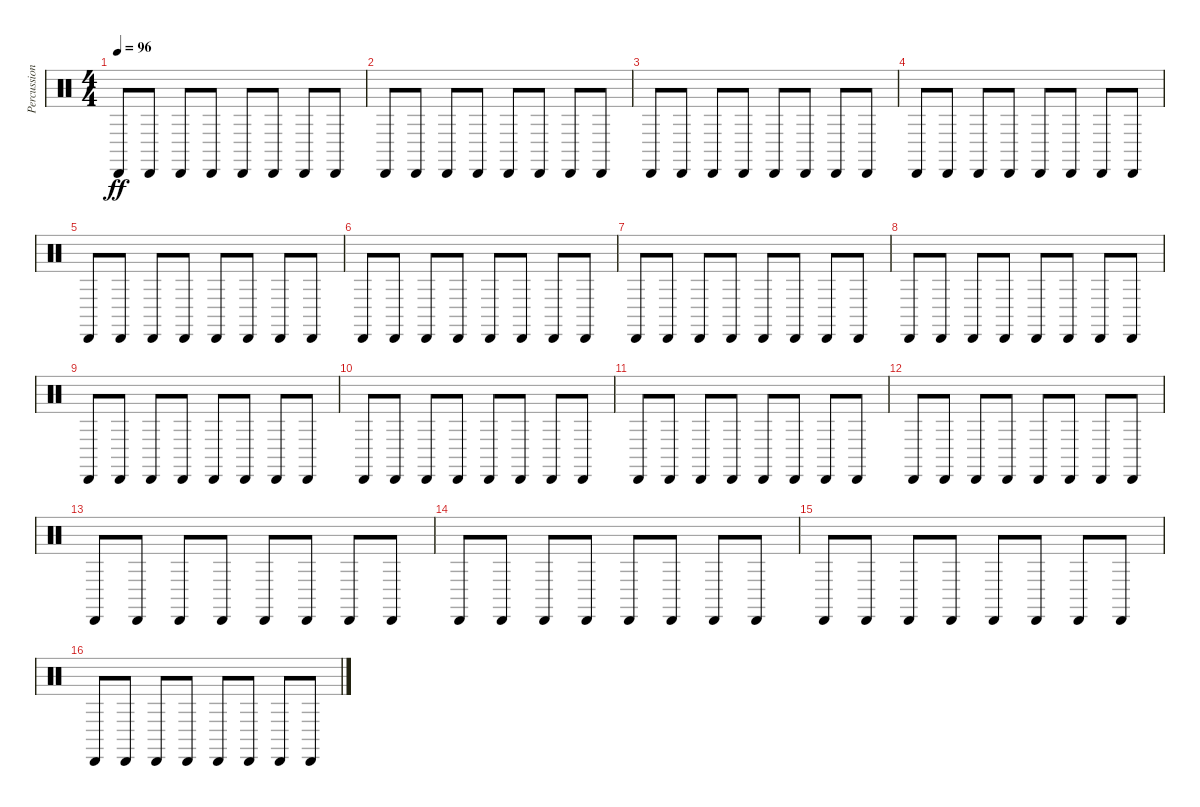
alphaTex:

\track ("Percussion 2" "Percussion") {instrument percussion}
\staff {score}
\articulation defaults
\ts (4 4)
\tempo 96
\clef neutral
\ks c "Cabasa (hit)".8{dy ff} "Cabasa (hit)".8 "Cabasa (hit)".8 "Cabasa (hit)".8 "Cabasa (hit)".8 "Cabasa (hit)".8 "Cabasa (hit)".8 "Cabasa (hit)".8
|
"Cabasa (hit)".8 "Cabasa (hit)".8 "Cabasa (hit)".8 "Cabasa (hit)".8 "Cabasa (hit)".8 "Cabasa (hit)".8 "Cabasa (hit)".8 "Cabasa (hit)".8 |
"Cabasa (hit)".8 "Cabasa (hit)".8 "Cabasa (hit)".8 "Cabasa (hit)".8 "Cabasa (hit)".8 "Cabasa (hit)".8 "Cabasa (hit)".8 "Cabasa (hit)".8 |
"Cabasa (hit)".8 "Cabasa (hit)".8 "Cabasa (hit)".8 "Cabasa (hit)".8 "Cabasa (hit)".8 "Cabasa (hit)".8 "Cabasa (hit)".8 "Cabasa (hit)".8 |
"Cabasa (hit)".8 "Cabasa (hit)".8 "Cabasa (hit)".8 "Cabasa (hit)".8 "Cabasa (hit)".8 "Cabasa (hit)".8 "Cabasa (hit)".8 "Cabasa (hit)".8 |
"Cabasa (hit)".8 "Cabasa (hit)".8 "Cabasa (hit)".8 "Cabasa (hit)".8 "Cabasa (hit)".8 "Cabasa (hit)".8 "Cabasa (hit)".8 "Cabasa (hit)".8 |
"Cabasa (hit)".8 "Cabasa (hit)".8 "Cabasa (hit)".8 "Cabasa (hit)".8 "Cabasa (hit)".8 "Cabasa (hit)".8 "Cabasa (hit)".8 "Cabasa (hit)".8 |
"Cabasa (hit)".8 "Cabasa (hit)".8 "Cabasa (hit)".8 "Cabasa (hit)".8 "Cabasa (hit)".8 "Cabasa (hit)".8 "Cabasa (hit)".8 "Cabasa (hit)".8 |
"Cabasa (hit)".8 "Cabasa (hit)".8 "Cabasa (hit)".8 "Cabasa (hit)".8 "Cabasa (hit)".8 "Cabasa (hit)".8 "Cabasa (hit)".8 "Cabasa (hit)".8 |
"Cabasa (hit)".8 "Cabasa (hit)".8 "Cabasa (hit)".8 "Cabasa (hit)".8 "Cabasa (hit)".8 "Cabasa (hit)".8 "Cabasa (hit)".8 "Cabasa (hit)".8 |
"Cabasa (hit)".8 "Cabasa (hit)".8 "Cabasa (hit)".8 "Cabasa (hit)".8 "Cabasa (hit)".8 "Cabasa (hit)".8 "Cabasa (hit)".8 "Cabasa (hit)".8 |
"Cabasa (hit)".8 "Cabasa (hit)".8 "Cabasa (hit)".8 "Cabasa (hit)".8 "Cabasa (hit)".8 "Cabasa (hit)".8 "Cabasa (hit)".8 "Cabasa (hit)".8 |
"Cabasa (hit)".8 "Cabasa (hit)".8 "Cabasa (hit)".8 "Cabasa (hit)".8 "Cabasa (hit)".8 "Cabasa (hit)".8 "Cabasa (hit)".8 "Cabasa (hit)".8 |
"Cabasa (hit)".8 "Cabasa (hit)".8 "Cabasa (hit)".8 "Cabasa (hit)".8 "Cabasa (hit)".8 "Cabasa (hit)".8 "Cabasa (hit)".8 "Cabasa (hit)".8 |
"Cabasa (hit)".8 "Cabasa (hit)".8 "Cabasa (hit)".8 "Cabasa (hit)".8 "Cabasa (hit)".8 "Cabasa (hit)".8 "Cabasa (hit)".8 "Cabasa (hit)".8 |
"Cabasa (hit)".8 "Cabasa (hit)".8 "Cabasa (hit)".8 "Cabasa (hit)".8 "Cabasa (hit)".8 "Cabasa (hit)".8 "Cabasa (hit)".8 "Cabasa (hit)".8
